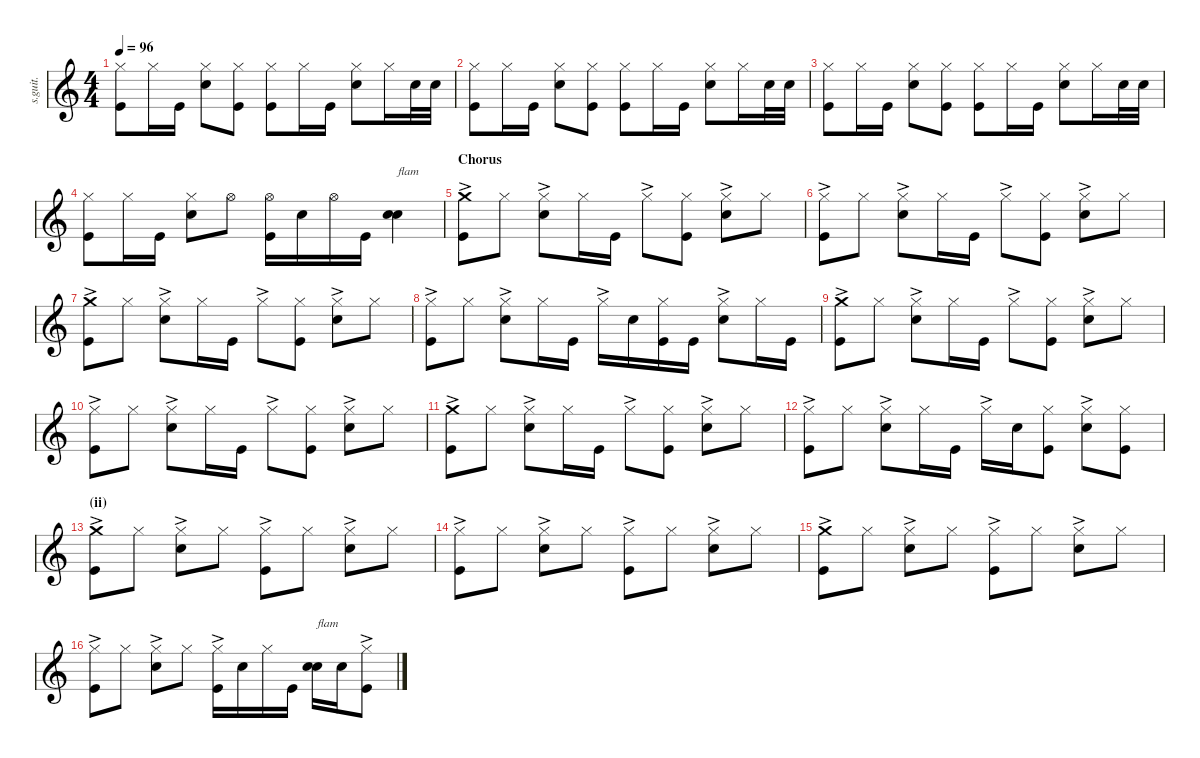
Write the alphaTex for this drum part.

\defaultSystemsLayout 4
\hideDynamics
\bracketExtendMode nobrackets
\track ("Chad Smith" "s.guit.") {instrument percussion}
\staff {score}
\articulation defaults
\ts (4 4)
\tempo 96
\clef g2
\ks c
("Hi-Hat (closed)" "Kick (hit)").8{dy f} "Hi-Hat (closed)".16 "Kick (hit)".16 ("Hi-Hat (closed)" "Snare (hit) 2").8 ("Hi-Hat (closed)" "Kick (hit)").8 ("Hi-Hat (closed)" "Kick (hit)").8 "Hi-Hat (closed)".16 "Kick (hit)".16 ("Hi-Hat (closed)" "Snare (hit) 2").8 "Hi-Hat (closed)".16 "Snare (hit) 2".32 "Snare (hit) 2".32 |
("Hi-Hat (closed)" "Kick (hit)").8 "Hi-Hat (closed)".16 "Kick (hit)".16 ("Hi-Hat (closed)" "Snare (hit) 2").8 ("Hi-Hat (closed)" "Kick (hit)").8 ("Hi-Hat (closed)" "Kick (hit)").8 "Hi-Hat (closed)".16 "Kick (hit)".16 ("Hi-Hat (closed)" "Snare (hit) 2").8 "Hi-Hat (closed)".16 "Snare (hit) 2".32 "Snare (hit) 2".32 |
("Hi-Hat (closed)" "Kick (hit)").8 "Hi-Hat (closed)".16 "Kick (hit)".16 ("Hi-Hat (closed)" "Snare (hit) 2").8 ("Hi-Hat (closed)" "Kick (hit)").8 ("Hi-Hat (closed)" "Kick (hit)").8 "Hi-Hat (closed)".16 "Kick (hit)".16 ("Hi-Hat (closed)" "Snare (hit) 2").8 "Hi-Hat (closed)".16 "Snare (hit) 2".32 "Snare (hit) 2".32 |
("Hi-Hat (closed)" "Kick (hit)").8 "Hi-Hat (closed)".16 "Kick (hit)".16 ("Hi-Hat (closed)" "Snare (hit) 2").8 "Hi-Hat (open)".8 ("Hi-Hat (open)" "Kick (hit)").16 "Snare (hit) 2".16 "Hi-Hat (open)".16 "Kick (hit)".16 ("Snare (hit) 2" "Snare (hit) 2").4{bd 30 txt "flam"} |
\section ("" "Chorus")
("Crash medium (hit)"{ac} "Kick (hit)").8 "Hi-Hat (closed)".8 ("Hi-Hat (closed)"{ac} "Snare (hit) 2").8 "Hi-Hat (closed)".16 "Kick (hit)".16 "Hi-Hat (closed)"{ac}.8 ("Hi-Hat (closed)" "Kick (hit)").8 ("Hi-Hat (closed)"{ac} "Snare (hit) 2").8 "Hi-Hat (closed)".8 |
("Hi-Hat (closed)"{ac} "Kick (hit)").8 "Hi-Hat (closed)".8 ("Hi-Hat (closed)"{ac} "Snare (hit) 2").8 "Hi-Hat (closed)".16 "Kick (hit)".16 "Hi-Hat (closed)"{ac}.8 ("Hi-Hat (closed)" "Kick (hit)").8 ("Hi-Hat (closed)"{ac} "Snare (hit) 2").8 "Hi-Hat (closed)".8 |
("Crash medium (hit)"{ac} "Kick (hit)").8 "Hi-Hat (closed)".8 ("Hi-Hat (closed)"{ac} "Snare (hit) 2").8 "Hi-Hat (closed)".16 "Kick (hit)".16 "Hi-Hat (closed)"{ac}.8 ("Hi-Hat (closed)" "Kick (hit)").8 ("Hi-Hat (closed)"{ac} "Snare (hit) 2").8 "Hi-Hat (closed)".8 |
("Hi-Hat (closed)"{ac} "Kick (hit)").8 "Hi-Hat (closed)".8 ("Hi-Hat (closed)"{ac} "Snare (hit) 2").8 "Hi-Hat (closed)".16 "Kick (hit)".16 "Hi-Hat (closed)"{ac}.16 "Snare (hit) 2".16 ("Hi-Hat (closed)" "Kick (hit)").16 "Kick (hit)".16 ("Hi-Hat (closed)"{ac} "Snare (hit) 2").8 "Hi-Hat (closed)".16 "Kick (hit)".16 |
("Crash medium (hit)"{ac} "Kick (hit)").8 "Hi-Hat (closed)".8 ("Hi-Hat (closed)"{ac} "Snare (hit) 2").8 "Hi-Hat (closed)".16 "Kick (hit)".16 "Hi-Hat (closed)"{ac}.8 ("Hi-Hat (closed)" "Kick (hit)").8 ("Hi-Hat (closed)"{ac} "Snare (hit) 2").8 "Hi-Hat (closed)".8 |
("Hi-Hat (closed)"{ac} "Kick (hit)").8 "Hi-Hat (closed)".8 ("Hi-Hat (closed)"{ac} "Snare (hit) 2").8 "Hi-Hat (closed)".16 "Kick (hit)".16 "Hi-Hat (closed)"{ac}.8 ("Hi-Hat (closed)" "Kick (hit)").8 ("Hi-Hat (closed)"{ac} "Snare (hit) 2").8 "Hi-Hat (closed)".8 |
("Crash medium (hit)"{ac} "Kick (hit)").8 "Hi-Hat (closed)".8 ("Hi-Hat (closed)"{ac} "Snare (hit) 2").8 "Hi-Hat (closed)".16 "Kick (hit)".16 "Hi-Hat (closed)"{ac}.8 ("Hi-Hat (closed)" "Kick (hit)").8 ("Hi-Hat (closed)"{ac} "Snare (hit) 2").8 "Hi-Hat (closed)".8 |
("Hi-Hat (closed)"{ac} "Kick (hit)").8 "Hi-Hat (closed)".8 ("Hi-Hat (closed)"{ac} "Snare (hit) 2").8 "Hi-Hat (closed)".16 "Kick (hit)".16 "Hi-Hat (closed)"{ac}.16 "Snare (hit) 2".16 ("Hi-Hat (closed)" "Kick (hit)").8 ("Hi-Hat (closed)"{ac} "Snare (hit) 2").8 ("Hi-Hat (closed)" "Kick (hit)").8 |
\section ("" "(ii)")
("Crash medium (hit)"{ac} "Kick (hit)").8 "Hi-Hat (closed)".8 ("Hi-Hat (closed)"{ac} "Snare (hit) 2").8 "Hi-Hat (closed)".8 ("Hi-Hat (closed)"{ac} "Kick (hit)").8 "Hi-Hat (closed)".8 ("Hi-Hat (closed)"{ac} "Snare (hit) 2").8 "Hi-Hat (closed)".8 |
("Hi-Hat (closed)"{ac} "Kick (hit)").8 "Hi-Hat (closed)".8 ("Hi-Hat (closed)"{ac} "Snare (hit) 2").8 "Hi-Hat (closed)".8 ("Hi-Hat (closed)"{ac} "Kick (hit)").8 "Hi-Hat (closed)".8 ("Hi-Hat (closed)"{ac} "Snare (hit) 2").8 "Hi-Hat (closed)".8 |
("Crash medium (hit)"{ac} "Kick (hit)").8 "Hi-Hat (closed)".8 ("Hi-Hat (closed)"{ac} "Snare (hit) 2").8 "Hi-Hat (closed)".8 ("Hi-Hat (closed)"{ac} "Kick (hit)").8 "Hi-Hat (closed)".8 ("Hi-Hat (closed)"{ac} "Snare (hit) 2").8 "Hi-Hat (closed)".8 |
("Hi-Hat (closed)"{ac} "Kick (hit)").8 "Hi-Hat (closed)".8 ("Hi-Hat (closed)"{ac} "Snare (hit) 2").8 "Hi-Hat (closed)".8 ("Hi-Hat (closed)"{ac} "Kick (hit)").16 "Snare (hit) 2".16 "Hi-Hat (closed)".16 "Kick (hit)".16 ("Snare (hit) 2" "Snare (hit) 2").16{bd 30 txt "flam"} "Snare (hit) 2".16 ("Hi-Hat (closed)"{ac} "Kick (hit)").8
